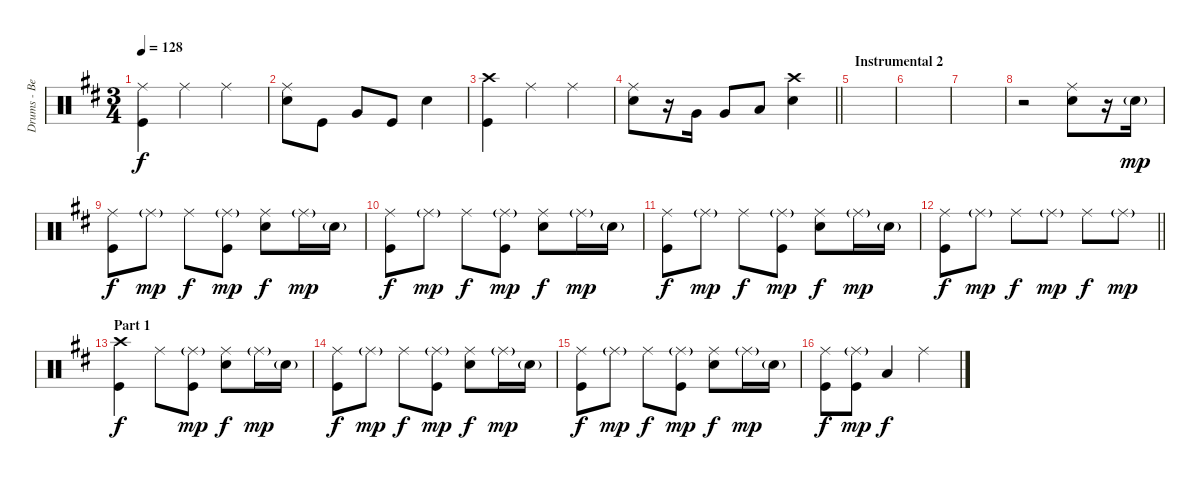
\track ("Drums - Ben Johnston" "Drums - Be") {instrument percussion}
\staff {score}
\articulation defaults
\ts (3 4)
\tempo 128
\clef neutral
\ks d
("Ride (middle)" "Kick (hit)").4{dy f} "Ride (middle)".4 "Ride (middle)".4 |
("Ride (middle)" "Snare (hit) 2").8 "Kick (hit)".8 "Very Low Tom (hit)".8 "Kick (hit)".8 "Snare (hit) 2".4 |
("Crash high (hit)" "Kick (hit)").4 "Ride (middle)".4 "Ride (middle)".4 |
\barLineRight lightlight
("Ride (middle)" "Snare (hit) 2").8 r.16 "Very Low Tom (hit)".16 "Very Low Tom (hit)".8 "Low Floor Tom (hit)".8 ("Crash high (hit)" "Snare (hit) 2").4 |
\section ("" "Instrumental 2")
|
|
|
r.2 ("Ride (middle)" "Snare (hit) 2").8 r.16 "Snare (hit) 2"{g}.16{dy mp} |
("Ride (middle)" "Kick (hit)").8{dy f} "Ride (middle)"{g}.8{dy mp} "Ride (middle)".8{dy f} ("Ride (middle)"{g} "Kick (hit)").8{dy mp} ("Ride (middle)" "Snare (hit) 2").8{dy f} "Ride (middle)"{g}.16{dy mp} "Snare (hit) 2"{g}.16 |
("Ride (middle)" "Kick (hit)").8{dy f} "Ride (middle)"{g}.8{dy mp} "Ride (middle)".8{dy f} ("Ride (middle)"{g} "Kick (hit)").8{dy mp} ("Ride (middle)" "Snare (hit) 2").8{dy f} "Ride (middle)"{g}.16{dy mp} "Snare (hit) 2"{g}.16 |
("Ride (middle)" "Kick (hit)").8{dy f} "Ride (middle)"{g}.8{dy mp} "Ride (middle)".8{dy f} ("Ride (middle)"{g} "Kick (hit)").8{dy mp} ("Ride (middle)" "Snare (hit) 2").8{dy f} "Ride (middle)"{g}.16{dy mp} "Snare (hit) 2"{g}.16 |
\barLineRight lightlight
("Ride (middle)" "Kick (hit)").8{dy f} "Ride (middle)"{g}.8{dy mp} "Ride (middle)".8{dy f} "Ride (middle)"{g}.8{dy mp} "Ride (middle)".8{dy f} "Ride (middle)"{g}.8{dy mp} |
\section ("" "Part 1")
("Crash high (hit)" "Kick (hit)").4{dy f} "Ride (middle)".8 ("Ride (middle)"{g} "Kick (hit)").8{dy mp} ("Ride (middle)" "Snare (hit) 2").8{dy f} "Ride (middle)"{g}.16{dy mp} "Snare (hit) 2"{g}.16 |
("Ride (middle)" "Kick (hit)").8{dy f} "Ride (middle)"{g}.8{dy mp} "Ride (middle)".8{dy f} ("Ride (middle)"{g} "Kick (hit)").8{dy mp} ("Ride (middle)" "Snare (hit) 2").8{dy f} "Ride (middle)"{g}.16{dy mp} "Snare (hit) 2"{g}.16 |
("Ride (middle)" "Kick (hit)").8{dy f} "Ride (middle)"{g}.8{dy mp} "Ride (middle)".8{dy f} ("Ride (middle)"{g} "Kick (hit)").8{dy mp} ("Ride (middle)" "Snare (hit) 2").8{dy f} "Ride (middle)"{g}.16{dy mp} "Snare (hit) 2"{g}.16 |
("Ride (middle)" "Kick (hit)").8{dy f} ("Ride (middle)"{g} "Kick (hit)").8{dy mp} "Low Floor Tom (hit)".4{dy f} "Ride (middle)".4
